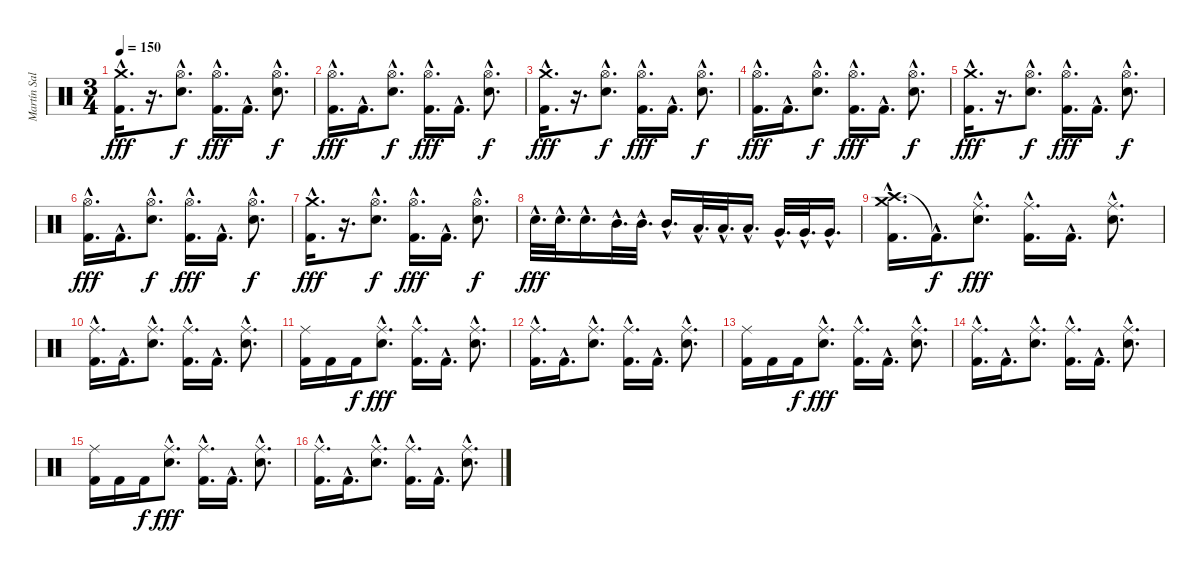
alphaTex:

\track ("Martín Salariato" "Martín Sal") {instrument percussion}
\staff {score}
\articulation defaults
\ts (3 4)
\tempo 150
\clef neutral
\ks c
("Crash medium (hit)"{hac} "Kick (hit) 2"{hac}).16{d dy fff} r.16{d} ("Hi-Hat (open)"{hac} "Snare (hit) 2"{hac}).8{d dy f} ("Hi-Hat (open)"{hac} "Kick (hit) 2"{hac}).16{d dy fff} "Kick (hit) 2"{hac}.16{d} ("Hi-Hat (open)"{hac} "Snare (hit) 2"{hac}).8{d dy f} |
("Hi-Hat (open)"{hac} "Kick (hit) 2"{hac}).16{d dy fff} "Kick (hit) 2"{hac}.16{d} ("Hi-Hat (open)"{hac} "Snare (hit) 2"{hac}).8{d dy f} ("Hi-Hat (open)"{hac} "Kick (hit) 2"{hac}).16{d dy fff} "Kick (hit) 2"{hac}.16{d} ("Hi-Hat (open)"{hac} "Snare (hit) 2"{hac}).8{d dy f} |
("Crash medium (hit)"{hac} "Kick (hit) 2"{hac}).16{d dy fff} r.16{d} ("Hi-Hat (open)"{hac} "Snare (hit) 2"{hac}).8{d dy f} ("Hi-Hat (open)"{hac} "Kick (hit) 2"{hac}).16{d dy fff} "Kick (hit) 2"{hac}.16{d} ("Hi-Hat (open)"{hac} "Snare (hit) 2"{hac}).8{d dy f} |
("Hi-Hat (open)"{hac} "Kick (hit) 2"{hac}).16{d dy fff} "Kick (hit) 2"{hac}.16{d} ("Hi-Hat (open)"{hac} "Snare (hit) 2"{hac}).8{d dy f} ("Hi-Hat (open)"{hac} "Kick (hit) 2"{hac}).16{d dy fff} "Kick (hit) 2"{hac}.16{d} ("Hi-Hat (open)"{hac} "Snare (hit) 2"{hac}).8{d dy f} |
("Crash medium (hit)"{hac} "Kick (hit) 2"{hac}).16{d dy fff} r.16{d} ("Hi-Hat (open)"{hac} "Snare (hit) 2"{hac}).8{d dy f} ("Hi-Hat (open)"{hac} "Kick (hit) 2"{hac}).16{d dy fff} "Kick (hit) 2"{hac}.16{d} ("Hi-Hat (open)"{hac} "Snare (hit) 2"{hac}).8{d dy f} |
("Hi-Hat (open)"{hac} "Kick (hit) 2"{hac}).16{d dy fff} "Kick (hit) 2"{hac}.16{d} ("Hi-Hat (open)"{hac} "Snare (hit) 2"{hac}).8{d dy f} ("Hi-Hat (open)"{hac} "Kick (hit) 2"{hac}).16{d dy fff} "Kick (hit) 2"{hac}.16{d} ("Hi-Hat (open)"{hac} "Snare (hit) 2"{hac}).8{d dy f} |
("Crash medium (hit)"{hac} "Kick (hit) 2"{hac}).16{d dy fff} r.16{d} ("Hi-Hat (open)"{hac} "Snare (hit) 2"{hac}).8{d dy f} ("Hi-Hat (open)"{hac} "Kick (hit) 2"{hac}).16{d dy fff} "Kick (hit) 2"{hac}.16{d} ("Hi-Hat (open)"{hac} "Snare (hit) 2"{hac}).8{d dy f} |
"Snare (hit) 2"{hac}.32{d dy fff} "Snare (hit) 2"{hac}.32{d} "Snare (hit) 2"{hac}.16{d} "Mid Tom (hit)"{hac}.32{d} "Mid Tom (hit)"{hac}.32{d} "Mid Tom (hit)"{hac}.16{d} "Low Tom (hit)"{hac}.32{d} "Low Tom (hit)"{hac}.32{d} "Low Tom (hit)"{hac}.16{d} "Very Low Tom (hit)"{hac}.32{d} "Very Low Tom (hit)"{hac}.32{d} "Very Low Tom (hit)"{hac}.16{d} |
("Crash high (hit)"{hac} "Crash medium (hit)"{hac} "Kick (hit) 2"{hac}).16{d} "Kick (hit) 2"{hac t}.16{d dy f} ("Ride (middle)"{hac} "Snare (hit) 2"{hac}).8{d dy fff} ("Ride (middle)"{hac} "Kick (hit) 2"{hac}).16{d} "Kick (hit) 2"{hac}.16{d} ("Ride (middle)"{hac} "Snare (hit) 2"{hac}).8{d} |
("Ride (middle)"{hac} "Kick (hit) 2"{hac}).16{d} "Kick (hit) 2"{hac}.16{d} ("Ride (middle)"{hac} "Snare (hit) 2"{hac}).8{d} ("Ride (middle)"{hac} "Kick (hit) 2"{hac}).16{d} "Kick (hit) 2"{hac}.16{d} ("Ride (middle)"{hac} "Snare (hit) 2"{hac}).8{d} |
("Ride (middle)" "Kick (hit) 2").16 "Kick (hit) 2".16 "Kick (hit) 2".16{dy f} ("Ride (middle)"{hac} "Snare (hit) 2"{hac}).8{d dy fff} ("Ride (middle)"{hac} "Kick (hit) 2"{hac}).16{d} "Kick (hit) 2"{hac}.16{d} ("Ride (middle)"{hac} "Snare (hit) 2"{hac}).8{d} |
("Ride (middle)"{hac} "Kick (hit) 2"{hac}).16{d} "Kick (hit) 2"{hac}.16{d} ("Ride (middle)"{hac} "Snare (hit) 2"{hac}).8{d} ("Ride (middle)"{hac} "Kick (hit) 2"{hac}).16{d} "Kick (hit) 2"{hac}.16{d} ("Ride (middle)"{hac} "Snare (hit) 2"{hac}).8{d} |
("Ride (middle)" "Kick (hit) 2").16 "Kick (hit) 2".16 "Kick (hit) 2".16{dy f} ("Ride (middle)"{hac} "Snare (hit) 2"{hac}).8{d dy fff} ("Ride (middle)"{hac} "Kick (hit) 2"{hac}).16{d} "Kick (hit) 2"{hac}.16{d} ("Ride (middle)"{hac} "Snare (hit) 2"{hac}).8{d} |
("Ride (middle)"{hac} "Kick (hit) 2"{hac}).16{d} "Kick (hit) 2"{hac}.16{d} ("Ride (middle)"{hac} "Snare (hit) 2"{hac}).8{d} ("Ride (middle)"{hac} "Kick (hit) 2"{hac}).16{d} "Kick (hit) 2"{hac}.16{d} ("Ride (middle)"{hac} "Snare (hit) 2"{hac}).8{d} |
("Ride (middle)" "Kick (hit) 2").16 "Kick (hit) 2".16 "Kick (hit) 2".16{dy f} ("Ride (middle)"{hac} "Snare (hit) 2"{hac}).8{d dy fff} ("Ride (middle)"{hac} "Kick (hit) 2"{hac}).16{d} "Kick (hit) 2"{hac}.16{d} ("Ride (middle)"{hac} "Snare (hit) 2"{hac}).8{d} |
("Ride (middle)"{hac} "Kick (hit) 2"{hac}).16{d} "Kick (hit) 2"{hac}.16{d} ("Ride (middle)"{hac} "Snare (hit) 2"{hac}).8{d} ("Ride (middle)"{hac} "Kick (hit) 2"{hac}).16{d} "Kick (hit) 2"{hac}.16{d} ("Ride (middle)"{hac} "Snare (hit) 2"{hac}).8{d}
